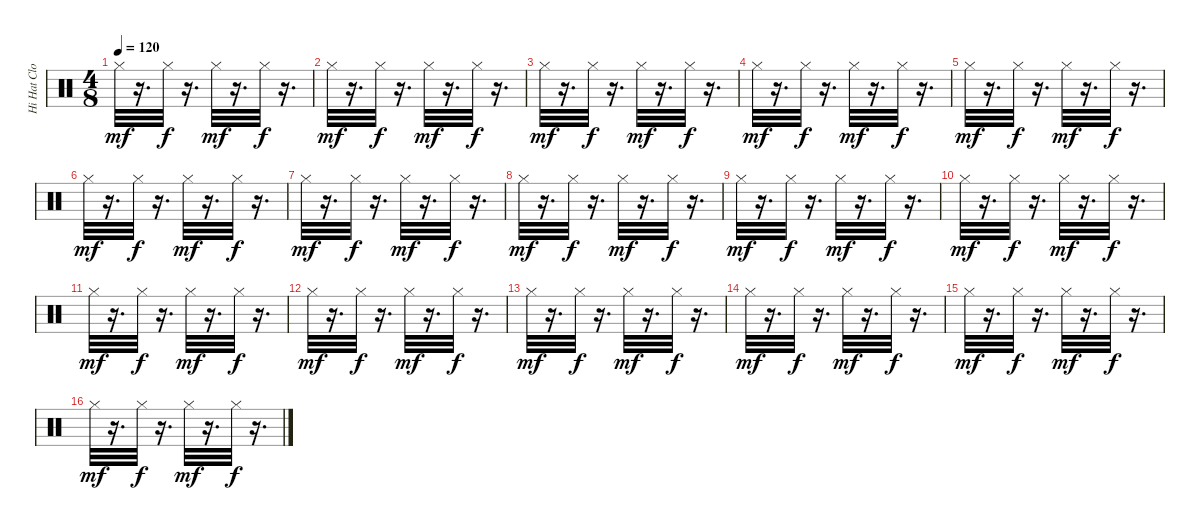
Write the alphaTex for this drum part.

\track ("Hi Hat Close" "Hi Hat Clo") {instrument percussion}
\staff {score}
\articulation defaults
\ts (4 8)
\tempo 120
\clef neutral
\ks c "Hi-Hat (closed)".32{dy mf}
r.16{d} "Hi-Hat (closed)".32{dy f} r.16{d} "Hi-Hat (closed)".32{dy mf} r.16{d} "Hi-Hat (closed)".32{dy f} r.16{d} |
"Hi-Hat (closed)".32{dy mf} r.16{d} "Hi-Hat (closed)".32{dy f} r.16{d} "Hi-Hat (closed)".32{dy mf} r.16{d} "Hi-Hat (closed)".32{dy f} r.16{d} |
"Hi-Hat (closed)".32{dy mf} r.16{d} "Hi-Hat (closed)".32{dy f} r.16{d} "Hi-Hat (closed)".32{dy mf} r.16{d} "Hi-Hat (closed)".32{dy f} r.16{d} |
"Hi-Hat (closed)".32{dy mf} r.16{d} "Hi-Hat (closed)".32{dy f} r.16{d} "Hi-Hat (closed)".32{dy mf} r.16{d} "Hi-Hat (closed)".32{dy f} r.16{d} |
"Hi-Hat (closed)".32{dy mf} r.16{d} "Hi-Hat (closed)".32{dy f} r.16{d} "Hi-Hat (closed)".32{dy mf} r.16{d} "Hi-Hat (closed)".32{dy f} r.16{d} |
"Hi-Hat (closed)".32{dy mf} r.16{d} "Hi-Hat (closed)".32{dy f} r.16{d} "Hi-Hat (closed)".32{dy mf} r.16{d} "Hi-Hat (closed)".32{dy f} r.16{d} |
"Hi-Hat (closed)".32{dy mf} r.16{d} "Hi-Hat (closed)".32{dy f} r.16{d} "Hi-Hat (closed)".32{dy mf} r.16{d} "Hi-Hat (closed)".32{dy f} r.16{d} |
"Hi-Hat (closed)".32{dy mf} r.16{d} "Hi-Hat (closed)".32{dy f} r.16{d} "Hi-Hat (closed)".32{dy mf} r.16{d} "Hi-Hat (closed)".32{dy f} r.16{d} |
"Hi-Hat (closed)".32{dy mf} r.16{d} "Hi-Hat (closed)".32{dy f} r.16{d} "Hi-Hat (closed)".32{dy mf} r.16{d} "Hi-Hat (closed)".32{dy f} r.16{d} |
"Hi-Hat (closed)".32{dy mf} r.16{d} "Hi-Hat (closed)".32{dy f} r.16{d} "Hi-Hat (closed)".32{dy mf} r.16{d} "Hi-Hat (closed)".32{dy f} r.16{d} |
"Hi-Hat (closed)".32{dy mf} r.16{d} "Hi-Hat (closed)".32{dy f} r.16{d} "Hi-Hat (closed)".32{dy mf} r.16{d} "Hi-Hat (closed)".32{dy f} r.16{d} |
"Hi-Hat (closed)".32{dy mf} r.16{d} "Hi-Hat (closed)".32{dy f} r.16{d} "Hi-Hat (closed)".32{dy mf} r.16{d} "Hi-Hat (closed)".32{dy f} r.16{d} |
"Hi-Hat (closed)".32{dy mf} r.16{d} "Hi-Hat (closed)".32{dy f} r.16{d} "Hi-Hat (closed)".32{dy mf} r.16{d} "Hi-Hat (closed)".32{dy f} r.16{d} |
"Hi-Hat (closed)".32{dy mf} r.16{d} "Hi-Hat (closed)".32{dy f} r.16{d} "Hi-Hat (closed)".32{dy mf} r.16{d} "Hi-Hat (closed)".32{dy f} r.16{d} |
"Hi-Hat (closed)".32{dy mf} r.16{d} "Hi-Hat (closed)".32{dy f} r.16{d} "Hi-Hat (closed)".32{dy mf} r.16{d} "Hi-Hat (closed)".32{dy f} r.16{d} |
"Hi-Hat (closed)".32{dy mf} r.16{d} "Hi-Hat (closed)".32{dy f} r.16{d} "Hi-Hat (closed)".32{dy mf} r.16{d} "Hi-Hat (closed)".32{dy f} r.16{d}
